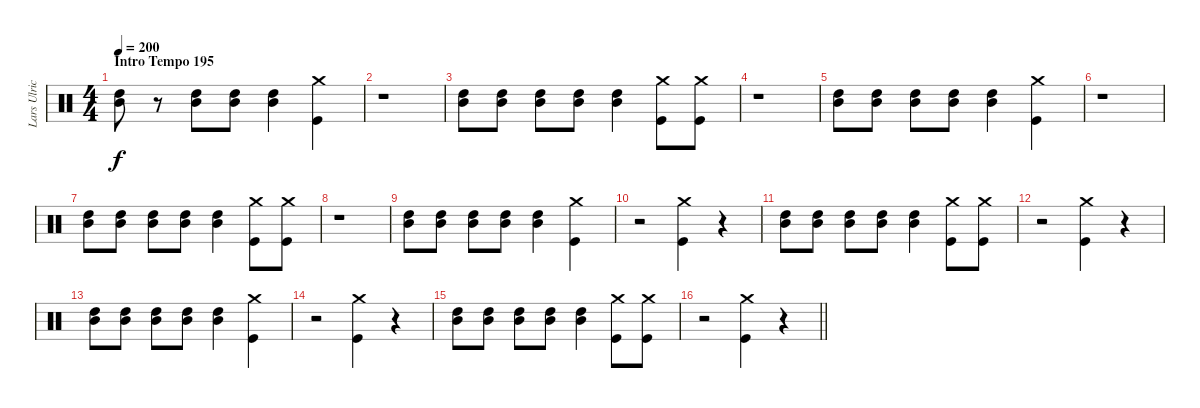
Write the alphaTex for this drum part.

\track ("Lars Ulrich (Drums)" "Lars Ulric") {instrument percussion}
\staff {score}
\articulation defaults
\ts (4 4)
\section ("" "Intro Tempo 195")
\tempo 200
\tempo 195
\tempo 200
\clef neutral
\ks c
("High Tom (hit)" "Mid Tom (hit)").8{dy f} r.8 ("High Tom (hit)" "Mid Tom (hit)").8 ("High Tom (hit)" "Mid Tom (hit)").8 ("High Tom (hit)" "Mid Tom (hit)").4 ("Crash medium (hit)" "Kick (hit)").4 |
r.1 |
("High Tom (hit)" "Mid Tom (hit)").8 ("High Tom (hit)" "Mid Tom (hit)").8 ("High Tom (hit)" "Mid Tom (hit)").8 ("High Tom (hit)" "Mid Tom (hit)").8 ("High Tom (hit)" "Mid Tom (hit)").4 ("Crash medium (hit)" "Kick (hit)").8 ("Kick (hit)" "Crash medium (hit)").8 |
r.1 |
("High Tom (hit)" "Mid Tom (hit)").8 ("High Tom (hit)" "Mid Tom (hit)").8 ("High Tom (hit)" "Mid Tom (hit)").8 ("High Tom (hit)" "Mid Tom (hit)").8 ("High Tom (hit)" "Mid Tom (hit)").4 ("Crash medium (hit)" "Kick (hit)").4 |
r.1 |
("High Tom (hit)" "Mid Tom (hit)").8 ("High Tom (hit)" "Mid Tom (hit)").8 ("High Tom (hit)" "Mid Tom (hit)").8 ("High Tom (hit)" "Mid Tom (hit)").8 ("High Tom (hit)" "Mid Tom (hit)").4 ("Crash medium (hit)" "Kick (hit)").8 ("Kick (hit)" "Crash medium (hit)").8 |
r.1 |
("High Tom (hit)" "Mid Tom (hit)").8 ("High Tom (hit)" "Mid Tom (hit)").8 ("High Tom (hit)" "Mid Tom (hit)").8 ("High Tom (hit)" "Mid Tom (hit)").8 ("High Tom (hit)" "Mid Tom (hit)").4 ("Crash medium (hit)" "Kick (hit)").4 |
r.2 ("Kick (hit)" "Crash medium (hit)").4 r.4 |
("High Tom (hit)" "Mid Tom (hit)").8 ("High Tom (hit)" "Mid Tom (hit)").8 ("High Tom (hit)" "Mid Tom (hit)").8 ("High Tom (hit)" "Mid Tom (hit)").8 ("High Tom (hit)" "Mid Tom (hit)").4 ("Crash medium (hit)" "Kick (hit)").8 ("Kick (hit)" "Crash medium (hit)").8 |
r.2 ("Kick (hit)" "Crash medium (hit)").4 r.4 |
("High Tom (hit)" "Mid Tom (hit)").8 ("High Tom (hit)" "Mid Tom (hit)").8 ("High Tom (hit)" "Mid Tom (hit)").8 ("High Tom (hit)" "Mid Tom (hit)").8 ("High Tom (hit)" "Mid Tom (hit)").4 ("Crash medium (hit)" "Kick (hit)").4 |
r.2 ("Kick (hit)" "Crash medium (hit)").4 r.4 |
("High Tom (hit)" "Mid Tom (hit)").8 ("High Tom (hit)" "Mid Tom (hit)").8 ("High Tom (hit)" "Mid Tom (hit)").8 ("High Tom (hit)" "Mid Tom (hit)").8 ("High Tom (hit)" "Mid Tom (hit)").4 ("Crash medium (hit)" "Kick (hit)").8 ("Kick (hit)" "Crash medium (hit)").8 |
\barLineRight lightlight
r.2 ("Kick (hit)" "Crash medium (hit)").4 r.4
